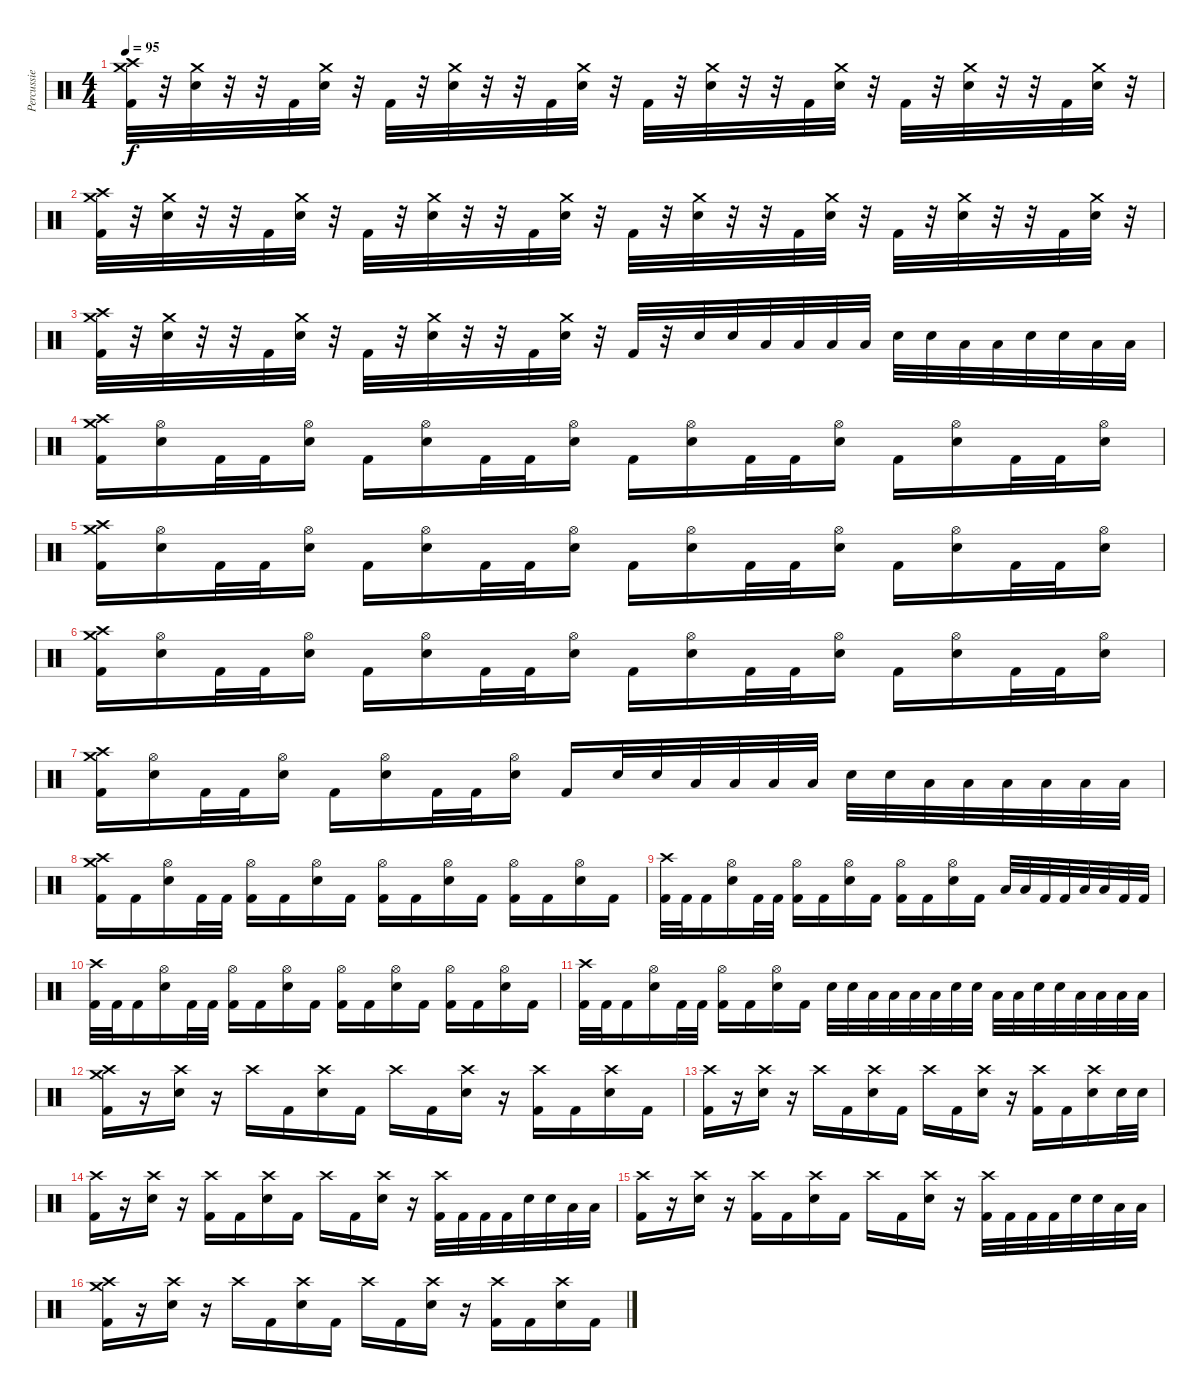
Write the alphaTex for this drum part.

\track ("Percussie" "Percussie") {instrument percussion}
\staff {score}
\articulation defaults
\ts (4 4)
\tempo 95
\clef neutral
\ks c
("Crash medium (hit)" "Crash high (hit)" "Kick (hit) 2").32{dy f} r.32 ("Crash medium (hit)" "Electric Snare (hit)").32 r.32 r.32 "Kick (hit) 2".32 ("Crash medium (hit)" "Electric Snare (hit)").32 r.32 "Kick (hit) 2".32 r.32 ("Crash medium (hit)" "Electric Snare (hit)").32 r.32 r.32 "Kick (hit) 2".32 ("Crash medium (hit)" "Electric Snare (hit)").32 r.32 "Kick (hit) 2".32 r.32 ("Crash medium (hit)" "Electric Snare (hit)").32 r.32 r.32 "Kick (hit) 2".32 ("Crash medium (hit)" "Electric Snare (hit)").32 r.32 "Kick (hit) 2".32 r.32 ("Crash medium (hit)" "Electric Snare (hit)").32 r.32 r.32 "Kick (hit) 2".32 ("Crash medium (hit)" "Electric Snare (hit)").32 r.32 |
("Crash medium (hit)" "Crash high (hit)" "Kick (hit) 2").32 r.32 ("Crash medium (hit)" "Electric Snare (hit)").32 r.32 r.32 "Kick (hit) 2".32 ("Crash medium (hit)" "Electric Snare (hit)").32 r.32 "Kick (hit) 2".32 r.32 ("Crash medium (hit)" "Electric Snare (hit)").32 r.32 r.32 "Kick (hit) 2".32 ("Crash medium (hit)" "Electric Snare (hit)").32 r.32 "Kick (hit) 2".32 r.32 ("Crash medium (hit)" "Electric Snare (hit)").32 r.32 r.32 "Kick (hit) 2".32 ("Crash medium (hit)" "Electric Snare (hit)").32 r.32 "Kick (hit) 2".32 r.32 ("Crash medium (hit)" "Electric Snare (hit)").32 r.32 r.32 "Kick (hit) 2".32 ("Crash medium (hit)" "Electric Snare (hit)").32 r.32 |
("Crash medium (hit)" "Crash high (hit)" "Kick (hit) 2").32 r.32 ("Crash medium (hit)" "Electric Snare (hit)").32 r.32 r.32 "Kick (hit) 2".32 ("Crash medium (hit)" "Electric Snare (hit)").32 r.32 "Kick (hit) 2".32 r.32 ("Crash medium (hit)" "Electric Snare (hit)").32 r.32 r.32 "Kick (hit) 2".32 ("Crash medium (hit)" "Electric Snare (hit)").32 r.32 "Kick (hit) 2".32 r.32 "Electric Snare (hit)".32 "Electric Snare (hit)".32 "Low Tom (hit)".32 "Low Tom (hit)".32 "Low Floor Tom (hit)".32 "Low Floor Tom (hit)".32 "Electric Snare (hit)".32 "Electric Snare (hit)".32 "Low Tom (hit)".32 "Low Tom (hit)".32 "Electric Snare (hit)".32 "Electric Snare (hit)".32 "Low Floor Tom (hit)".32 "Low Floor Tom (hit)".32 |
("Crash medium (hit)" "Crash high (hit)" "Kick (hit) 2").16 ("Hi-Hat (open)" "Electric Snare (hit)").16 "Kick (hit) 2".32 "Kick (hit) 2".32 ("Hi-Hat (open)" "Electric Snare (hit)").16 "Kick (hit) 2".16 ("Hi-Hat (open)" "Electric Snare (hit)").16 "Kick (hit) 2".32 "Kick (hit) 2".32 ("Hi-Hat (open)" "Electric Snare (hit)").16 "Kick (hit) 2".16 ("Hi-Hat (open)" "Electric Snare (hit)").16 "Kick (hit) 2".32 "Kick (hit) 2".32 ("Hi-Hat (open)" "Electric Snare (hit)").16 "Kick (hit) 2".16 ("Hi-Hat (open)" "Electric Snare (hit)").16 "Kick (hit) 2".32 "Kick (hit) 2".32 ("Hi-Hat (open)" "Electric Snare (hit)").16 |
("Crash medium (hit)" "Crash high (hit)" "Kick (hit) 2").16 ("Hi-Hat (open)" "Electric Snare (hit)").16 "Kick (hit) 2".32 "Kick (hit) 2".32 ("Hi-Hat (open)" "Electric Snare (hit)").16 "Kick (hit) 2".16 ("Hi-Hat (open)" "Electric Snare (hit)").16 "Kick (hit) 2".32 "Kick (hit) 2".32 ("Hi-Hat (open)" "Electric Snare (hit)").16 "Kick (hit) 2".16 ("Hi-Hat (open)" "Electric Snare (hit)").16 "Kick (hit) 2".32 "Kick (hit) 2".32 ("Hi-Hat (open)" "Electric Snare (hit)").16 "Kick (hit) 2".16 ("Hi-Hat (open)" "Electric Snare (hit)").16 "Kick (hit) 2".32 "Kick (hit) 2".32 ("Hi-Hat (open)" "Electric Snare (hit)").16 |
("Crash medium (hit)" "Crash high (hit)" "Kick (hit) 2").16 ("Hi-Hat (open)" "Electric Snare (hit)").16 "Kick (hit) 2".32 "Kick (hit) 2".32 ("Hi-Hat (open)" "Electric Snare (hit)").16 "Kick (hit) 2".16 ("Hi-Hat (open)" "Electric Snare (hit)").16 "Kick (hit) 2".32 "Kick (hit) 2".32 ("Hi-Hat (open)" "Electric Snare (hit)").16 "Kick (hit) 2".16 ("Hi-Hat (open)" "Electric Snare (hit)").16 "Kick (hit) 2".32 "Kick (hit) 2".32 ("Hi-Hat (open)" "Electric Snare (hit)").16 "Kick (hit) 2".16 ("Hi-Hat (open)" "Electric Snare (hit)").16 "Kick (hit) 2".32 "Kick (hit) 2".32 ("Hi-Hat (open)" "Electric Snare (hit)").16 |
("Crash medium (hit)" "Crash high (hit)" "Kick (hit) 2").16 ("Hi-Hat (open)" "Electric Snare (hit)").16 "Kick (hit) 2".32 "Kick (hit) 2".32 ("Hi-Hat (open)" "Electric Snare (hit)").16 "Kick (hit) 2".16 ("Hi-Hat (open)" "Electric Snare (hit)").16 "Kick (hit) 2".32 "Kick (hit) 2".32 ("Hi-Hat (open)" "Electric Snare (hit)").16 "Kick (hit) 2".16 "Electric Snare (hit)".32 "Electric Snare (hit)".32 "Low Tom (hit)".32 "Low Tom (hit)".32 "Low Floor Tom (hit)".32 "Low Floor Tom (hit)".32 "Electric Snare (hit)".32 "Electric Snare (hit)".32 "Low Tom (hit)".32 "Low Tom (hit)".32 "Low Floor Tom (hit)".32 "Low Floor Tom (hit)".32 "Low Floor Tom (hit)".32 "Low Floor Tom (hit)".32 |
("Crash medium (hit)" "Crash high (hit)" "Kick (hit) 2").16 "Kick (hit) 2".16 ("Hi-Hat (open)" "Electric Snare (hit)").16 "Kick (hit) 2".32 "Kick (hit) 2".32 ("Hi-Hat (open)" "Kick (hit) 2").16 "Kick (hit) 2".16 ("Hi-Hat (open)" "Electric Snare (hit)").16 "Kick (hit) 2".16 ("Hi-Hat (open)" "Kick (hit) 2").16 "Kick (hit) 2".16 ("Hi-Hat (open)" "Electric Snare (hit)").16 "Kick (hit) 2".16 ("Hi-Hat (open)" "Kick (hit) 2").16 "Kick (hit) 2".16 ("Hi-Hat (open)" "Electric Snare (hit)").16 "Kick (hit) 2".16 |
("Crash high (hit)" "Kick (hit) 2").32 "Kick (hit) 2".32 "Kick (hit) 2".16 ("Hi-Hat (open)" "Electric Snare (hit)").16 "Kick (hit) 2".32 "Kick (hit) 2".32 ("Hi-Hat (open)" "Kick (hit) 2").16 "Kick (hit) 2".16 ("Hi-Hat (open)" "Electric Snare (hit)").16 "Kick (hit) 2".16 ("Hi-Hat (open)" "Kick (hit) 2").16 "Kick (hit) 2".16 ("Hi-Hat (open)" "Electric Snare (hit)").16 "Kick (hit) 2".16 "Low Tom (hit)".32 "Low Tom (hit)".32 "Kick (hit) 2".32 "Kick (hit) 2".32 "Low Floor Tom (hit)".32 "Low Floor Tom (hit)".32 "Kick (hit) 2".32 "Kick (hit) 2".32 |
("Crash high (hit)" "Kick (hit) 2").32 "Kick (hit) 2".32 "Kick (hit) 2".16 ("Hi-Hat (open)" "Electric Snare (hit)").16 "Kick (hit) 2".32 "Kick (hit) 2".32 ("Hi-Hat (open)" "Kick (hit) 2").16 "Kick (hit) 2".16 ("Hi-Hat (open)" "Electric Snare (hit)").16 "Kick (hit) 2".16 ("Hi-Hat (open)" "Kick (hit) 2").16 "Kick (hit) 2".16 ("Hi-Hat (open)" "Electric Snare (hit)").16 "Kick (hit) 2".16 ("Hi-Hat (open)" "Kick (hit) 2").16 "Kick (hit) 2".16 ("Hi-Hat (open)" "Electric Snare (hit)").16 "Kick (hit) 2".16 |
("Crash high (hit)" "Kick (hit) 2").32 "Kick (hit) 2".32 "Kick (hit) 2".16 ("Hi-Hat (open)" "Electric Snare (hit)").16 "Kick (hit) 2".32 "Kick (hit) 2".32 ("Hi-Hat (open)" "Kick (hit) 2").16 "Kick (hit) 2".16 ("Hi-Hat (open)" "Electric Snare (hit)").16 "Kick (hit) 2".16 "Electric Snare (hit)".32 "Electric Snare (hit)".32 "Low Tom (hit)".32 "Low Tom (hit)".32 "Low Floor Tom (hit)".32 "Low Floor Tom (hit)".32 "Electric Snare (hit)".32 "Electric Snare (hit)".32 "Low Tom (hit)".32 "Low Tom (hit)".32 "Electric Snare (hit)".32 "Electric Snare (hit)".32 "Low Tom (hit)".32 "Low Tom (hit)".32 "Low Floor Tom (hit)".32 "Low Floor Tom (hit)".32 |
("Crash medium (hit)" "Crash high (hit)" "Kick (hit) 2").16 r.16 ("Crash high (hit)" "Electric Snare (hit)").16 r.16 "Crash high (hit)".16 "Kick (hit) 2".16 ("Crash high (hit)" "Electric Snare (hit)").16 "Kick (hit) 2".16 "Crash high (hit)".16 "Kick (hit) 2".16 ("Crash high (hit)" "Electric Snare (hit)").16 r.16 ("Crash high (hit)" "Kick (hit) 2").16 "Kick (hit) 2".16 ("Crash high (hit)" "Electric Snare (hit)").16 "Kick (hit) 2".16 |
("Crash high (hit)" "Kick (hit) 2").16 r.16 ("Crash high (hit)" "Electric Snare (hit)").16 r.16 "Crash high (hit)".16 "Kick (hit) 2".16 ("Crash high (hit)" "Electric Snare (hit)").16 "Kick (hit) 2".16 "Crash high (hit)".16 "Kick (hit) 2".16 ("Crash high (hit)" "Electric Snare (hit)").16 r.16 ("Crash high (hit)" "Kick (hit) 2").16 "Kick (hit) 2".16 ("Crash high (hit)" "Electric Snare (hit)").16 "Electric Snare (hit)".32 "Electric Snare (hit)".32 |
("Crash high (hit)" "Kick (hit) 2").16 r.16 ("Crash high (hit)" "Electric Snare (hit)").16 r.16 ("Crash high (hit)" "Kick (hit) 2").16 "Kick (hit) 2".16 ("Crash high (hit)" "Electric Snare (hit)").16 "Kick (hit) 2".16 "Crash high (hit)".16 "Kick (hit) 2".16 ("Crash high (hit)" "Electric Snare (hit)").16 r.16 ("Crash high (hit)" "Kick (hit) 2").32 "Kick (hit) 2".32 "Kick (hit) 2".32 "Kick (hit) 2".32 "Electric Snare (hit)".32 "Electric Snare (hit)".32 "Low Tom (hit)".32 "Low Tom (hit)".32 |
("Crash high (hit)" "Kick (hit) 2").16 r.16 ("Crash high (hit)" "Electric Snare (hit)").16 r.16 ("Crash high (hit)" "Kick (hit) 2").16 "Kick (hit) 2".16 ("Crash high (hit)" "Electric Snare (hit)").16 "Kick (hit) 2".16 "Crash high (hit)".16 "Kick (hit) 2".16 ("Crash high (hit)" "Electric Snare (hit)").16 r.16 ("Crash high (hit)" "Kick (hit) 2").32 "Kick (hit) 2".32 "Kick (hit) 2".32 "Kick (hit) 2".32 "Electric Snare (hit)".32 "Electric Snare (hit)".32 "Low Floor Tom (hit)".32 "Low Floor Tom (hit)".32 |
("Crash medium (hit)" "Crash high (hit)" "Kick (hit) 2").16 r.16 ("Crash high (hit)" "Electric Snare (hit)").16 r.16 "Crash high (hit)".16 "Kick (hit) 2".16 ("Crash high (hit)" "Electric Snare (hit)").16 "Kick (hit) 2".16 "Crash high (hit)".16 "Kick (hit) 2".16 ("Crash high (hit)" "Electric Snare (hit)").16 r.16 ("Crash high (hit)" "Kick (hit) 2").16 "Kick (hit) 2".16 ("Crash high (hit)" "Electric Snare (hit)").16 "Kick (hit) 2".16
